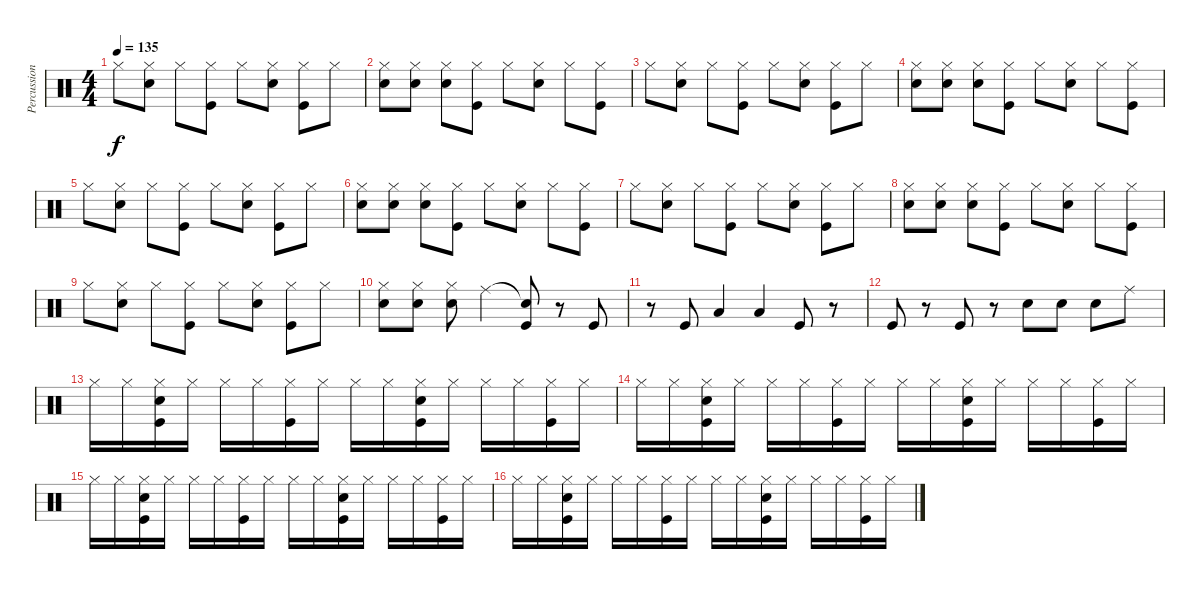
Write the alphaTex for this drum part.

\track ("Percussion" "Percussion") {instrument percussion}
\staff {score}
\articulation defaults
\ts (4 4)
\tempo 135
\clef neutral
\ks c "Hi-Hat (closed)".8{dy f}
("Hi-Hat (closed)" "Snare (hit) 2").8 "Hi-Hat (closed)".8 ("Hi-Hat (closed)" "Kick (hit)").8 "Hi-Hat (closed)".8 ("Hi-Hat (closed)" "Snare (hit) 2").8 ("Hi-Hat (closed)" "Kick (hit)").8 "Hi-Hat (closed)".8 |
("Hi-Hat (closed)" "Snare (hit) 2").8 ("Hi-Hat (closed)" "Snare (hit) 2").8 ("Hi-Hat (closed)" "Snare (hit) 2").8 ("Hi-Hat (closed)" "Kick (hit)").8 "Hi-Hat (closed)".8 ("Hi-Hat (closed)" "Snare (hit) 2").8 "Hi-Hat (closed)".8 ("Hi-Hat (closed)" "Kick (hit)").8 |
"Hi-Hat (closed)".8 ("Hi-Hat (closed)" "Snare (hit) 2").8 "Hi-Hat (closed)".8 ("Hi-Hat (closed)" "Kick (hit)").8 "Hi-Hat (closed)".8 ("Hi-Hat (closed)" "Snare (hit) 2").8 ("Hi-Hat (closed)" "Kick (hit)").8 "Hi-Hat (closed)".8 |
("Hi-Hat (closed)" "Snare (hit) 2").8 ("Hi-Hat (closed)" "Snare (hit) 2").8 ("Hi-Hat (closed)" "Snare (hit) 2").8 ("Hi-Hat (closed)" "Kick (hit)").8 "Hi-Hat (closed)".8 ("Hi-Hat (closed)" "Snare (hit) 2").8 "Hi-Hat (closed)".8 ("Hi-Hat (closed)" "Kick (hit)").8 |
"Hi-Hat (closed)".8 ("Hi-Hat (closed)" "Snare (hit) 2").8 "Hi-Hat (closed)".8 ("Hi-Hat (closed)" "Kick (hit)").8 "Hi-Hat (closed)".8 ("Hi-Hat (closed)" "Snare (hit) 2").8 ("Hi-Hat (closed)" "Kick (hit)").8 "Hi-Hat (closed)".8 |
("Hi-Hat (closed)" "Snare (hit) 2").8 ("Hi-Hat (closed)" "Snare (hit) 2").8 ("Hi-Hat (closed)" "Snare (hit) 2").8 ("Hi-Hat (closed)" "Kick (hit)").8 "Hi-Hat (closed)".8 ("Hi-Hat (closed)" "Snare (hit) 2").8 "Hi-Hat (closed)".8 ("Hi-Hat (closed)" "Kick (hit)").8 |
"Hi-Hat (closed)".8 ("Hi-Hat (closed)" "Snare (hit) 2").8 "Hi-Hat (closed)".8 ("Hi-Hat (closed)" "Kick (hit)").8 "Hi-Hat (closed)".8 ("Hi-Hat (closed)" "Snare (hit) 2").8 ("Hi-Hat (closed)" "Kick (hit)").8 "Hi-Hat (closed)".8 |
("Hi-Hat (closed)" "Snare (hit) 2").8 ("Hi-Hat (closed)" "Snare (hit) 2").8 ("Hi-Hat (closed)" "Snare (hit) 2").8 ("Hi-Hat (closed)" "Kick (hit)").8 "Hi-Hat (closed)".8 ("Hi-Hat (closed)" "Snare (hit) 2").8 "Hi-Hat (closed)".8 ("Hi-Hat (closed)" "Kick (hit)").8 |
"Hi-Hat (closed)".8 ("Hi-Hat (closed)" "Snare (hit) 2").8 "Hi-Hat (closed)".8 ("Hi-Hat (closed)" "Kick (hit)").8 "Hi-Hat (closed)".8 ("Hi-Hat (closed)" "Snare (hit) 2").8 ("Hi-Hat (closed)" "Kick (hit)").8 "Hi-Hat (closed)".8 |
("Hi-Hat (closed)" "Snare (hit) 2").8 ("Hi-Hat (closed)" "Snare (hit) 2").8 ("Hi-Hat (closed)" "Snare (hit) 2").8 "Ride (middle)".4 ("Snare (hit)"{t} "Kick (hit)").8 r.8 "Kick (hit)".8 |
r.8 "Kick (hit)".8 "Low Floor Tom (hit)".4 "Low Floor Tom (hit)".4 "Kick (hit)".8 r.8 |
"Kick (hit)".8 r.8 "Kick (hit)".8 r.8 "Snare (hit) 2".8 "Snare (hit) 2".8 "Snare (hit) 2".8 "Ride (middle)".8 |
"Hi-Hat (closed)".16 "Hi-Hat (closed)".16 ("Hi-Hat (closed)" "Snare (hit) 2" "Kick (hit)").16 "Hi-Hat (closed)".16 "Hi-Hat (closed)".16 "Hi-Hat (closed)".16 ("Hi-Hat (closed)" "Kick (hit)").16 "Hi-Hat (closed)".16 "Hi-Hat (closed)".16 "Hi-Hat (closed)".16 ("Hi-Hat (closed)" "Snare (hit) 2" "Kick (hit)").16 "Hi-Hat (closed)".16 "Hi-Hat (closed)".16 "Hi-Hat (closed)".16 ("Hi-Hat (closed)" "Kick (hit)").16 "Hi-Hat (closed)".16 |
"Hi-Hat (closed)".16 "Hi-Hat (closed)".16 ("Hi-Hat (closed)" "Snare (hit) 2" "Kick (hit)").16 "Hi-Hat (closed)".16 "Hi-Hat (closed)".16 "Hi-Hat (closed)".16 ("Hi-Hat (closed)" "Kick (hit)").16 "Hi-Hat (closed)".16 "Hi-Hat (closed)".16 "Hi-Hat (closed)".16 ("Hi-Hat (closed)" "Snare (hit) 2" "Kick (hit)").16 "Hi-Hat (closed)".16 "Hi-Hat (closed)".16 "Hi-Hat (closed)".16 ("Hi-Hat (closed)" "Kick (hit)").16 "Hi-Hat (closed)".16 |
"Hi-Hat (closed)".16 "Hi-Hat (closed)".16 ("Hi-Hat (closed)" "Snare (hit) 2" "Kick (hit)").16 "Hi-Hat (closed)".16 "Hi-Hat (closed)".16 "Hi-Hat (closed)".16 ("Hi-Hat (closed)" "Kick (hit)").16 "Hi-Hat (closed)".16 "Hi-Hat (closed)".16 "Hi-Hat (closed)".16 ("Hi-Hat (closed)" "Snare (hit) 2" "Kick (hit)").16 "Hi-Hat (closed)".16 "Hi-Hat (closed)".16 "Hi-Hat (closed)".16 ("Hi-Hat (closed)" "Kick (hit)").16 "Hi-Hat (closed)".16 |
"Hi-Hat (closed)".16 "Hi-Hat (closed)".16 ("Hi-Hat (closed)" "Snare (hit) 2" "Kick (hit)").16 "Hi-Hat (closed)".16 "Hi-Hat (closed)".16 "Hi-Hat (closed)".16 ("Hi-Hat (closed)" "Kick (hit)").16 "Hi-Hat (closed)".16 "Hi-Hat (closed)".16 "Hi-Hat (closed)".16 ("Hi-Hat (closed)" "Snare (hit) 2" "Kick (hit)").16 "Hi-Hat (closed)".16 "Hi-Hat (closed)".16 "Hi-Hat (closed)".16 ("Hi-Hat (closed)" "Kick (hit)").16 "Hi-Hat (closed)".16
